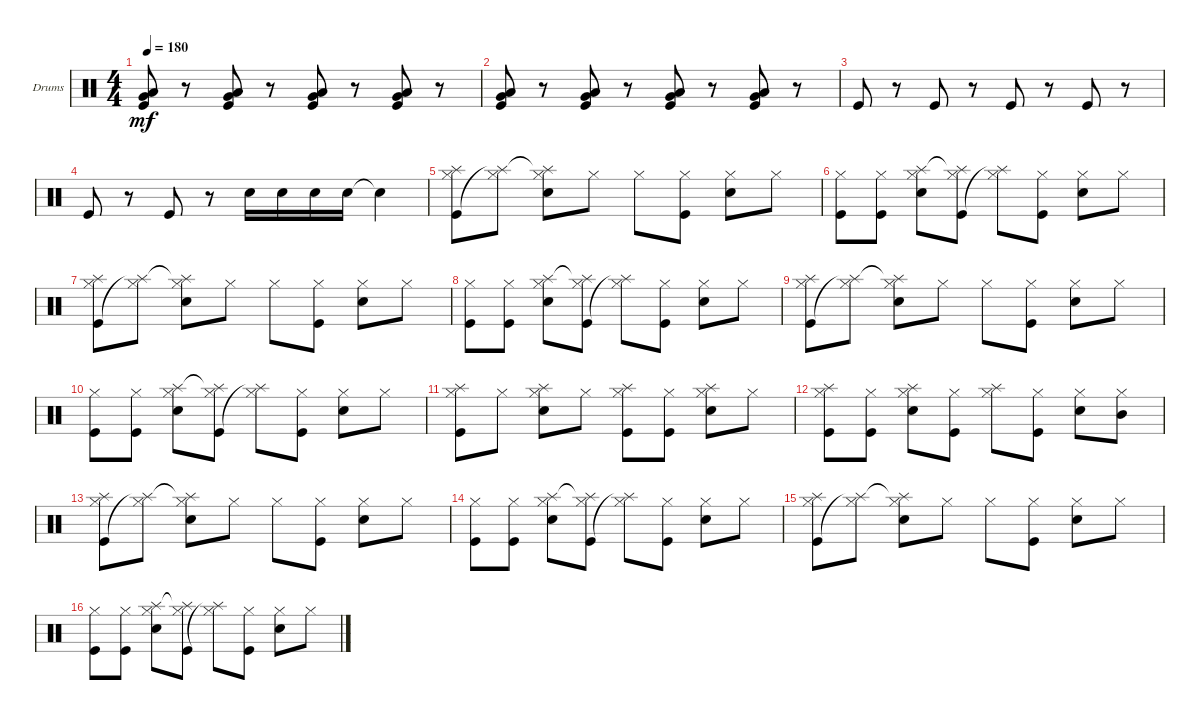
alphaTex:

\bracketExtendMode groupsimilarinstruments
\firstSystemTrackNameOrientation horizontal
\otherSystemsTrackNameOrientation horizontal
\track ("Drumkit" "Drums") {instrument percussion}
\staff {score}
\articulation defaults
\ts (4 4)
\tempo 180
\clef neutral
\ks c
("Kick (hit)" "Low Tom (hit)" "Very Low Tom (hit)").8{dy mf} r.8 ("Kick (hit)" "Low Tom (hit)" "Very Low Tom (hit)").8 r.8 ("Kick (hit)" "Low Tom (hit)" "Very Low Tom (hit)").8 r.8 ("Kick (hit)" "Low Tom (hit)" "Very Low Tom (hit)").8 r.8 |
("Kick (hit)" "Low Tom (hit)" "Very Low Tom (hit)").8 r.8 ("Kick (hit)" "Low Tom (hit)" "Very Low Tom (hit)").8 r.8 ("Kick (hit)" "Low Tom (hit)" "Very Low Tom (hit)").8 r.8 ("Kick (hit)" "Low Tom (hit)" "Very Low Tom (hit)").8 r.8 |
"Kick (hit)".8 r.8 "Kick (hit)".8 r.8 "Kick (hit)".8 r.8 "Kick (hit)".8 r.8 |
"Kick (hit)".8 r.8 "Kick (hit)".8 r.8 "Snare (hit) 2".16 "Snare (hit) 2".16 "Snare (hit) 2".16 "Snare (hit) 2".16 "Snare (hit) 2"{t}.4 |
("Hi-Hat (closed)" "Kick (hit)" "Splash (hit)").8 ("Hi-Hat (closed)" "Splash (hit)"{t}).8 ("Hi-Hat (closed)" "Splash (hit)"{t} "Snare (hit) 2").8 "Hi-Hat (closed)".8 "Hi-Hat (closed)".8 ("Hi-Hat (closed)" "Kick (hit)").8 ("Hi-Hat (closed)" "Snare (hit) 2").8 "Hi-Hat (closed)".8 |
("Hi-Hat (closed)" "Kick (hit)").8 ("Hi-Hat (closed)" "Kick (hit)").8 ("Hi-Hat (closed)" "Snare (hit) 2" "Splash (hit)").8 ("Hi-Hat (closed)" "Kick (hit)" "Splash (hit)"{t}).8 ("Hi-Hat (closed)" "Splash (hit)"{t}).8 ("Hi-Hat (closed)" "Kick (hit)").8 ("Hi-Hat (closed)" "Snare (hit) 2").8 "Hi-Hat (closed)".8 |
("Hi-Hat (closed)" "Kick (hit)" "Splash (hit)").8 ("Hi-Hat (closed)" "Splash (hit)"{t}).8 ("Hi-Hat (closed)" "Splash (hit)"{t} "Snare (hit) 2").8 "Hi-Hat (closed)".8 "Hi-Hat (closed)".8 ("Hi-Hat (closed)" "Kick (hit)").8 ("Hi-Hat (closed)" "Snare (hit) 2").8 "Hi-Hat (closed)".8 |
("Hi-Hat (closed)" "Kick (hit)").8 ("Hi-Hat (closed)" "Kick (hit)").8 ("Hi-Hat (closed)" "Snare (hit) 2" "Splash (hit)").8 ("Hi-Hat (closed)" "Kick (hit)" "Splash (hit)"{t}).8 ("Hi-Hat (closed)" "Splash (hit)"{t}).8 ("Hi-Hat (closed)" "Kick (hit)").8 ("Hi-Hat (closed)" "Snare (hit) 2").8 "Hi-Hat (closed)".8 |
("Hi-Hat (closed)" "Kick (hit)" "Splash (hit)").8 ("Hi-Hat (closed)" "Splash (hit)"{t}).8 ("Hi-Hat (closed)" "Splash (hit)"{t} "Snare (hit) 2").8 "Hi-Hat (closed)".8 "Hi-Hat (closed)".8 ("Hi-Hat (closed)" "Kick (hit)").8 ("Hi-Hat (closed)" "Snare (hit) 2").8 "Hi-Hat (closed)".8 |
("Hi-Hat (closed)" "Kick (hit)").8 ("Hi-Hat (closed)" "Kick (hit)").8 ("Hi-Hat (closed)" "Snare (hit) 2" "Splash (hit)").8 ("Hi-Hat (closed)" "Kick (hit)" "Splash (hit)"{t}).8 ("Hi-Hat (closed)" "Splash (hit)"{t}).8 ("Hi-Hat (closed)" "Kick (hit)").8 ("Hi-Hat (closed)" "Snare (hit) 2").8 "Hi-Hat (closed)".8 |
("Hi-Hat (closed)" "Kick (hit)" "Splash (hit)").8 "Hi-Hat (closed)".8 ("Hi-Hat (closed)" "Snare (hit) 2" "Splash (hit)").8 "Hi-Hat (closed)".8 ("Hi-Hat (closed)" "Kick (hit)" "Splash (hit)").8 ("Hi-Hat (closed)" "Kick (hit)").8 ("Hi-Hat (closed)" "Snare (hit) 2" "Splash (hit)").8 "Hi-Hat (closed)".8 |
("Hi-Hat (closed)" "Kick (hit)" "Splash (hit)").8 ("Hi-Hat (closed)" "Kick (hit)").8 ("Hi-Hat (closed)" "Snare (hit) 2" "Splash (hit)").8 ("Hi-Hat (closed)" "Kick (hit)").8 ("Hi-Hat (closed)" "Splash (hit)").8 ("Hi-Hat (closed)" "Kick (hit)").8 ("Hi-Hat (closed)" "Snare (hit) 2").8 ("Hi-Hat (closed)" "Mid Tom (hit)").8 |
("Hi-Hat (closed)" "Kick (hit)" "Splash (hit)").8 ("Hi-Hat (closed)" "Splash (hit)"{t}).8 ("Hi-Hat (closed)" "Splash (hit)"{t} "Snare (hit) 2").8 "Hi-Hat (closed)".8 "Hi-Hat (closed)".8 ("Hi-Hat (closed)" "Kick (hit)").8 ("Hi-Hat (closed)" "Snare (hit) 2").8 "Hi-Hat (closed)".8 |
("Hi-Hat (closed)" "Kick (hit)").8 ("Hi-Hat (closed)" "Kick (hit)").8 ("Hi-Hat (closed)" "Snare (hit) 2" "Splash (hit)").8 ("Hi-Hat (closed)" "Kick (hit)" "Splash (hit)"{t}).8 ("Hi-Hat (closed)" "Splash (hit)"{t}).8 ("Hi-Hat (closed)" "Kick (hit)").8 ("Hi-Hat (closed)" "Snare (hit) 2").8 "Hi-Hat (closed)".8 |
("Hi-Hat (closed)" "Kick (hit)" "Splash (hit)").8 ("Hi-Hat (closed)" "Splash (hit)"{t}).8 ("Hi-Hat (closed)" "Splash (hit)"{t} "Snare (hit) 2").8 "Hi-Hat (closed)".8 "Hi-Hat (closed)".8 ("Hi-Hat (closed)" "Kick (hit)").8 ("Hi-Hat (closed)" "Snare (hit) 2").8 "Hi-Hat (closed)".8 |
("Hi-Hat (closed)" "Kick (hit)").8 ("Hi-Hat (closed)" "Kick (hit)").8 ("Hi-Hat (closed)" "Snare (hit) 2" "Splash (hit)").8 ("Hi-Hat (closed)" "Kick (hit)" "Splash (hit)"{t}).8 ("Hi-Hat (closed)" "Splash (hit)"{t}).8 ("Hi-Hat (closed)" "Kick (hit)").8 ("Hi-Hat (closed)" "Snare (hit) 2").8 "Hi-Hat (closed)".8
